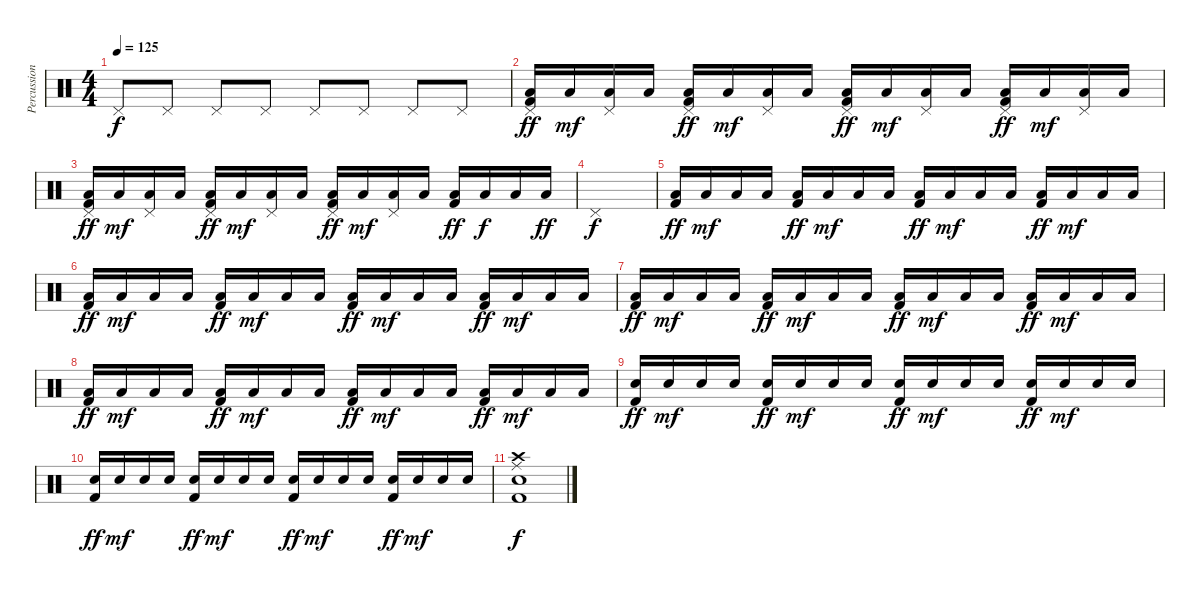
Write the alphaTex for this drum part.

\track ("Percussions" "Percussion") {instrument percussion}
\staff {score}
\articulation defaults
\ts (4 4)
\tempo 125
\clef neutral
\ks c "Pedal Hi-Hat (hit)".8{dy f} "Pedal Hi-Hat (hit)".8 "Pedal Hi-Hat (hit)".8 "Pedal Hi-Hat (hit)".8 "Pedal Hi-Hat (hit)".8 "Pedal Hi-Hat (hit)".8 "Pedal Hi-Hat (hit)".8 "Pedal Hi-Hat (hit)".8
|
("Pedal Hi-Hat (hit)" "Low Tom (hit)" "Kick (hit) 2").16{dy ff} "Low Tom (hit)".16{dy mf} ("Pedal Hi-Hat (hit)" "Low Tom (hit)").16 "Low Tom (hit)".16 ("Pedal Hi-Hat (hit)" "Low Tom (hit)" "Kick (hit) 2").16{dy ff} "Low Tom (hit)".16{dy mf} ("Pedal Hi-Hat (hit)" "Low Tom (hit)").16 "Low Tom (hit)".16 ("Pedal Hi-Hat (hit)" "Low Tom (hit)" "Kick (hit) 2").16{dy ff} "Low Tom (hit)".16{dy mf} ("Pedal Hi-Hat (hit)" "Low Tom (hit)").16 "Low Tom (hit)".16 ("Pedal Hi-Hat (hit)" "Low Tom (hit)" "Kick (hit) 2").16{dy ff} "Low Tom (hit)".16{dy mf} ("Pedal Hi-Hat (hit)" "Low Tom (hit)").16 "Low Tom (hit)".16 |
("Pedal Hi-Hat (hit)" "Low Floor Tom (hit)" "Kick (hit) 2").16{dy ff} "Low Floor Tom (hit)".16{dy mf} ("Pedal Hi-Hat (hit)" "Low Floor Tom (hit)").16 "Low Floor Tom (hit)".16 ("Pedal Hi-Hat (hit)" "Low Floor Tom (hit)" "Kick (hit) 2").16{dy ff} "Low Floor Tom (hit)".16{dy mf} ("Pedal Hi-Hat (hit)" "Low Floor Tom (hit)").16 "Low Floor Tom (hit)".16 ("Pedal Hi-Hat (hit)" "Low Floor Tom (hit)" "Kick (hit) 2").16{dy ff} "Low Floor Tom (hit)".16{dy mf} ("Pedal Hi-Hat (hit)" "Low Floor Tom (hit)").16 "Low Floor Tom (hit)".16 ("Low Floor Tom (hit)" "Kick (hit) 2").16{dy ff} "Low Floor Tom (hit)".16{dy f} "Low Floor Tom (hit)".16 "Low Floor Tom (hit)".16{dy ff} |
"Pedal Hi-Hat (hit)".1{dy f} |
("Low Tom (hit)" "Kick (hit) 2").16{dy ff} "Low Tom (hit)".16{dy mf} "Low Tom (hit)".16 "Low Tom (hit)".16 ("Low Tom (hit)" "Kick (hit) 2").16{dy ff} "Low Tom (hit)".16{dy mf} "Low Tom (hit)".16 "Low Tom (hit)".16 ("Low Tom (hit)" "Kick (hit) 2").16{dy ff} "Low Tom (hit)".16{dy mf} "Low Tom (hit)".16 "Low Tom (hit)".16 ("Low Tom (hit)" "Kick (hit) 2").16{dy ff} "Low Tom (hit)".16{dy mf} "Low Tom (hit)".16 "Low Tom (hit)".16 |
("Low Tom (hit)" "Kick (hit) 2").16{dy ff} "Low Tom (hit)".16{dy mf} "Low Tom (hit)".16 "Low Tom (hit)".16 ("Low Tom (hit)" "Kick (hit) 2").16{dy ff} "Low Tom (hit)".16{dy mf} "Low Tom (hit)".16 "Low Tom (hit)".16 ("Low Tom (hit)" "Kick (hit) 2").16{dy ff} "Low Tom (hit)".16{dy mf} "Low Tom (hit)".16 "Low Tom (hit)".16 ("Low Tom (hit)" "Kick (hit) 2").16{dy ff} "Low Tom (hit)".16{dy mf} "Low Tom (hit)".16 "Low Tom (hit)".16 |
("Low Tom (hit)" "Kick (hit) 2").16{dy ff} "Low Tom (hit)".16{dy mf} "Low Tom (hit)".16 "Low Tom (hit)".16 ("Low Tom (hit)" "Kick (hit) 2").16{dy ff} "Low Tom (hit)".16{dy mf} "Low Tom (hit)".16 "Low Tom (hit)".16 ("Low Tom (hit)" "Kick (hit) 2").16{dy ff} "Low Tom (hit)".16{dy mf} "Low Tom (hit)".16 "Low Tom (hit)".16 ("Low Tom (hit)" "Kick (hit) 2").16{dy ff} "Low Tom (hit)".16{dy mf} "Low Tom (hit)".16 "Low Tom (hit)".16 |
("Low Tom (hit)" "Kick (hit) 2").16{dy ff} "Low Tom (hit)".16{dy mf} "Low Tom (hit)".16 "Low Tom (hit)".16 ("Low Tom (hit)" "Kick (hit) 2").16{dy ff} "Low Tom (hit)".16{dy mf} "Low Tom (hit)".16 "Low Tom (hit)".16 ("Low Tom (hit)" "Kick (hit) 2").16{dy ff} "Low Tom (hit)".16{dy mf} "Low Tom (hit)".16 "Low Tom (hit)".16 ("Low Tom (hit)" "Kick (hit) 2").16{dy ff} "Low Tom (hit)".16{dy mf} "Low Tom (hit)".16 "Low Tom (hit)".16 |
("Snare (hit) 2" "Kick (hit) 2").16{dy ff} "Snare (hit) 2".16{dy mf} "Snare (hit) 2".16 "Snare (hit) 2".16 ("Snare (hit) 2" "Kick (hit) 2").16{dy ff} "Snare (hit) 2".16{dy mf} "Snare (hit) 2".16 "Snare (hit) 2".16 ("Snare (hit) 2" "Kick (hit) 2").16{dy ff} "Snare (hit) 2".16{dy mf} "Snare (hit) 2".16 "Snare (hit) 2".16 ("Snare (hit) 2" "Kick (hit) 2").16{dy ff} "Snare (hit) 2".16{dy mf} "Snare (hit) 2".16 "Snare (hit) 2".16 |
("Snare (hit) 2" "Kick (hit) 2").16{dy ff} "Snare (hit) 2".16{dy mf} "Snare (hit) 2".16 "Snare (hit) 2".16 ("Snare (hit) 2" "Kick (hit) 2").16{dy ff} "Snare (hit) 2".16{dy mf} "Snare (hit) 2".16 "Snare (hit) 2".16 ("Snare (hit) 2" "Kick (hit) 2").16{dy ff} "Snare (hit) 2".16{dy mf} "Snare (hit) 2".16 "Snare (hit) 2".16 ("Snare (hit) 2" "Kick (hit) 2").16{dy ff} "Snare (hit) 2".16{dy mf} "Snare (hit) 2".16 "Snare (hit) 2".16 |
("Ride (middle)" "Crash high (hit)" "Snare (hit) 2" "Kick (hit) 2").1{dy f}
